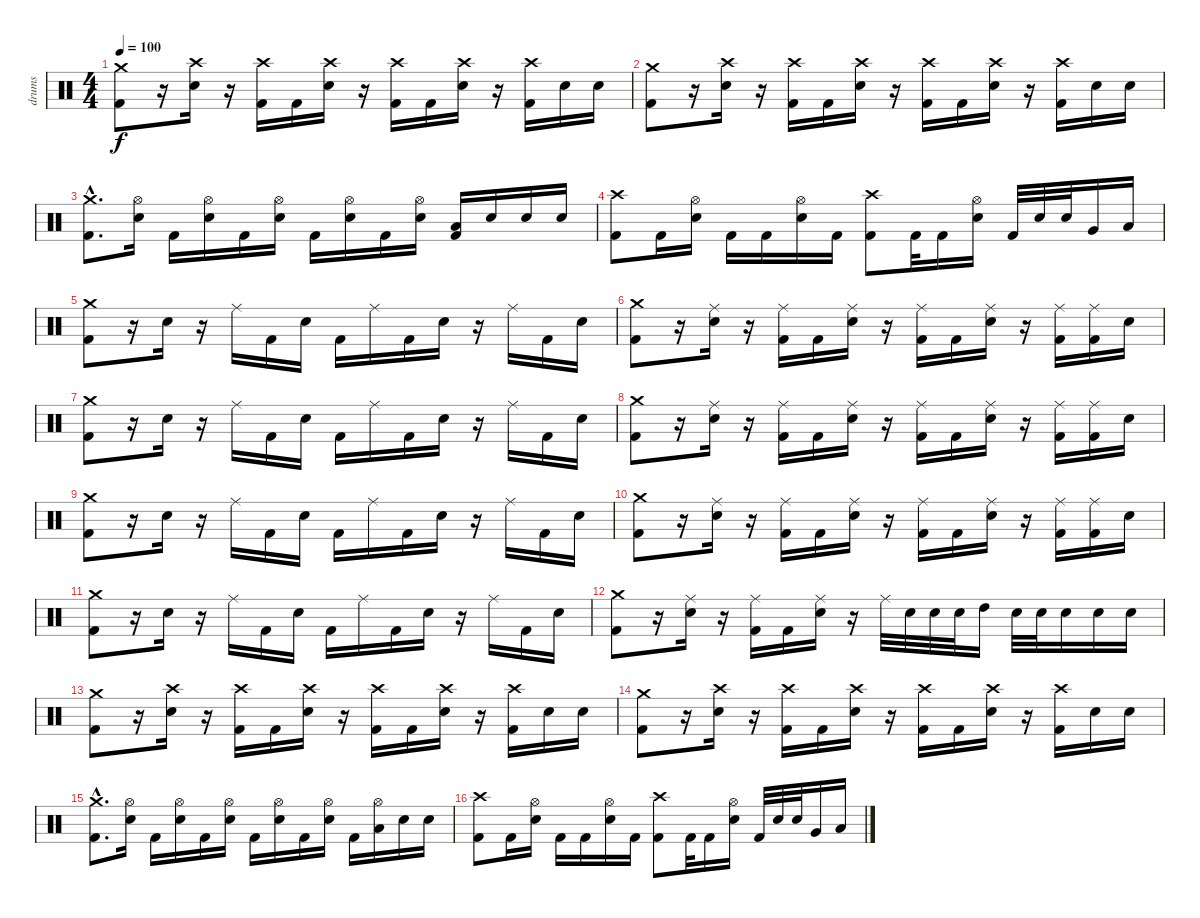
\track ("drums" "drums") {instrument percussion}
\staff {score}
\articulation defaults
\ts (4 4)
\tempo 100
\clef neutral
\ks aminor
("Crash medium (hit)" "Kick (hit) 2").8{dy f} r.16 ("Crash high (hit)" "Snare (hit) 2").16 r.16 ("Crash high (hit)" "Kick (hit) 2").16 "Kick (hit) 2".16 ("Crash high (hit)" "Snare (hit) 2").16 r.16 ("Crash high (hit)" "Kick (hit) 2").16 "Kick (hit) 2".16 ("Crash high (hit)" "Snare (hit) 2").16 r.16 ("Crash high (hit)" "Kick (hit) 2").16 "Snare (hit) 2".16 "Snare (hit) 2".16 |
("Crash medium (hit)" "Kick (hit) 2").8 r.16 ("Crash high (hit)" "Snare (hit) 2").16 r.16 ("Crash high (hit)" "Kick (hit) 2").16 "Kick (hit) 2".16 ("Crash high (hit)" "Snare (hit) 2").16 r.16 ("Crash high (hit)" "Kick (hit) 2").16 "Kick (hit) 2".16 ("Crash high (hit)" "Snare (hit) 2").16 r.16 ("Crash high (hit)" "Kick (hit) 2").16 "Snare (hit) 2".16 "Snare (hit) 2".16 |
("Crash medium (hit)"{hac} "Kick (hit) 2"{hac}).8{d} ("Hi-Hat (open)" "Snare (hit) 2").16 "Kick (hit) 2".16 ("Hi-Hat (open)" "Snare (hit) 2").16 "Kick (hit) 2".16 ("Hi-Hat (open)" "Snare (hit) 2").16 "Kick (hit) 2".16 ("Hi-Hat (open)" "Snare (hit) 2").16 "Kick (hit) 2".16 ("Hi-Hat (open)" "Snare (hit) 2").16 ("Low Tom (hit)" "Kick (hit) 2").16 "Snare (hit) 2".16 "Snare (hit) 2".16 "Snare (hit) 2".16 |
("Crash high (hit)" "Kick (hit) 2").8 "Kick (hit) 2".16 ("Hi-Hat (open)" "Snare (hit) 2").16 "Kick (hit) 2".16 "Kick (hit) 2".16 ("Hi-Hat (open)" "Snare (hit) 2").16 "Kick (hit) 2".16 ("Crash high (hit)" "Kick (hit) 2").8 "Kick (hit) 2".32 "Kick (hit) 2".16 ("Hi-Hat (open)" "Snare (hit) 2").16 "Kick (hit) 2".32 "Snare (hit) 2".32 "Snare (hit) 2".32 "Very Low Tom (hit)".16 "Low Floor Tom (hit)".16 |
("Crash medium (hit)" "Kick (hit) 2").8 r.16 "Snare (hit) 2".16 r.16 "Ride (middle)".16 "Kick (hit) 2".16 "Snare (hit) 2".16 "Kick (hit) 2".16 "Ride (middle)".16 "Kick (hit) 2".16 "Snare (hit) 2".16 r.16 "Ride (middle)".16 "Kick (hit) 2".16 "Snare (hit) 2".16 |
("Crash medium (hit)" "Kick (hit) 2").8 r.16 ("Ride (middle)" "Snare (hit) 2").16 r.16 ("Ride (middle)" "Kick (hit) 2").16 "Kick (hit) 2".16 ("Ride (middle)" "Snare (hit) 2").16 r.16 ("Ride (middle)" "Kick (hit) 2").16 "Kick (hit) 2".16 ("Ride (middle)" "Snare (hit) 2").16 r.16 ("Ride (middle)" "Kick (hit) 2").16 ("Ride (middle)" "Kick (hit) 2").16 "Snare (hit) 2".16 |
("Crash medium (hit)" "Kick (hit) 2").8 r.16 "Snare (hit) 2".16 r.16 "Ride (middle)".16 "Kick (hit) 2".16 "Snare (hit) 2".16 "Kick (hit) 2".16 "Ride (middle)".16 "Kick (hit) 2".16 "Snare (hit) 2".16 r.16 "Ride (middle)".16 "Kick (hit) 2".16 "Snare (hit) 2".16 |
("Crash medium (hit)" "Kick (hit) 2").8 r.16 ("Ride (middle)" "Snare (hit) 2").16 r.16 ("Ride (middle)" "Kick (hit) 2").16 "Kick (hit) 2".16 ("Ride (middle)" "Snare (hit) 2").16 r.16 ("Ride (middle)" "Kick (hit) 2").16 "Kick (hit) 2".16 ("Ride (middle)" "Snare (hit) 2").16 r.16 ("Ride (middle)" "Kick (hit) 2").16 ("Ride (middle)" "Kick (hit) 2").16 "Snare (hit) 2".16 |
("Crash medium (hit)" "Kick (hit) 2").8 r.16 "Snare (hit) 2".16 r.16 "Ride (middle)".16 "Kick (hit) 2".16 "Snare (hit) 2".16 "Kick (hit) 2".16 "Ride (middle)".16 "Kick (hit) 2".16 "Snare (hit) 2".16 r.16 "Ride (middle)".16 "Kick (hit) 2".16 "Snare (hit) 2".16 |
("Crash medium (hit)" "Kick (hit) 2").8 r.16 ("Ride (middle)" "Snare (hit) 2").16 r.16 ("Ride (middle)" "Kick (hit) 2").16 "Kick (hit) 2".16 ("Ride (middle)" "Snare (hit) 2").16 r.16 ("Ride (middle)" "Kick (hit) 2").16 "Kick (hit) 2".16 ("Ride (middle)" "Snare (hit) 2").16 r.16 ("Ride (middle)" "Kick (hit) 2").16 ("Ride (middle)" "Kick (hit) 2").16 "Snare (hit) 2".16 |
("Crash medium (hit)" "Kick (hit) 2").8 r.16 "Snare (hit) 2".16 r.16 "Ride (middle)".16 "Kick (hit) 2".16 "Snare (hit) 2".16 "Kick (hit) 2".16 "Ride (middle)".16 "Kick (hit) 2".16 "Snare (hit) 2".16 r.16 "Ride (middle)".16 "Kick (hit) 2".16 "Snare (hit) 2".16 |
("Crash medium (hit)" "Kick (hit) 2").8 r.16 ("Ride (middle)" "Snare (hit) 2").16 r.16 ("Ride (middle)" "Kick (hit) 2").16 "Kick (hit) 2".16 ("Ride (middle)" "Snare (hit) 2").16 r.16 "Ride (middle)".32 "Snare (hit) 2".32 "Snare (hit) 2".32 "Snare (hit) 2".32 "High Tom (hit)".16 "Snare (hit) 2".32 "Snare (hit) 2".32 "Snare (hit) 2".16 "Snare (hit) 2".16 "Snare (hit) 2".16 |
("Crash medium (hit)" "Kick (hit) 2").8 r.16 ("Crash high (hit)" "Snare (hit) 2").16 r.16 ("Crash high (hit)" "Kick (hit) 2").16 "Kick (hit) 2".16 ("Crash high (hit)" "Snare (hit) 2").16 r.16 ("Crash high (hit)" "Kick (hit) 2").16 "Kick (hit) 2".16 ("Crash high (hit)" "Snare (hit) 2").16 r.16 ("Crash high (hit)" "Kick (hit) 2").16 "Snare (hit) 2".16 "Snare (hit) 2".16 |
("Crash medium (hit)" "Kick (hit) 2").8 r.16 ("Crash high (hit)" "Snare (hit) 2").16 r.16 ("Crash high (hit)" "Kick (hit) 2").16 "Kick (hit) 2".16 ("Crash high (hit)" "Snare (hit) 2").16 r.16 ("Crash high (hit)" "Kick (hit) 2").16 "Kick (hit) 2".16 ("Crash high (hit)" "Snare (hit) 2").16 r.16 ("Crash high (hit)" "Kick (hit) 2").16 "Snare (hit) 2".16 "Snare (hit) 2".16 |
("Crash medium (hit)"{hac} "Kick (hit) 2"{hac}).8{d} ("Hi-Hat (open)" "Snare (hit) 2").16 "Kick (hit) 2".16 ("Hi-Hat (open)" "Snare (hit) 2").16 "Kick (hit) 2".16 ("Hi-Hat (open)" "Snare (hit) 2").16 "Kick (hit) 2".16 ("Hi-Hat (open)" "Snare (hit) 2").16 "Kick (hit) 2".16 ("Hi-Hat (open)" "Snare (hit) 2").16 "Kick (hit) 2".16 ("Hi-Hat (open)" "Low Floor Tom (hit)").16 "Snare (hit) 2".16 "Snare (hit) 2".16 |
("Crash high (hit)" "Kick (hit) 2").8 "Kick (hit) 2".16 ("Hi-Hat (open)" "Snare (hit) 2").16 "Kick (hit) 2".16 "Kick (hit) 2".16 ("Hi-Hat (open)" "Snare (hit) 2").16 "Kick (hit) 2".16 ("Crash high (hit)" "Kick (hit) 2").8 "Kick (hit) 2".32 "Kick (hit) 2".16 ("Hi-Hat (open)" "Snare (hit) 2").16 "Kick (hit) 2".32 "Snare (hit) 2".32 "Snare (hit) 2".32 "Very Low Tom (hit)".16 "Low Floor Tom (hit)".16
